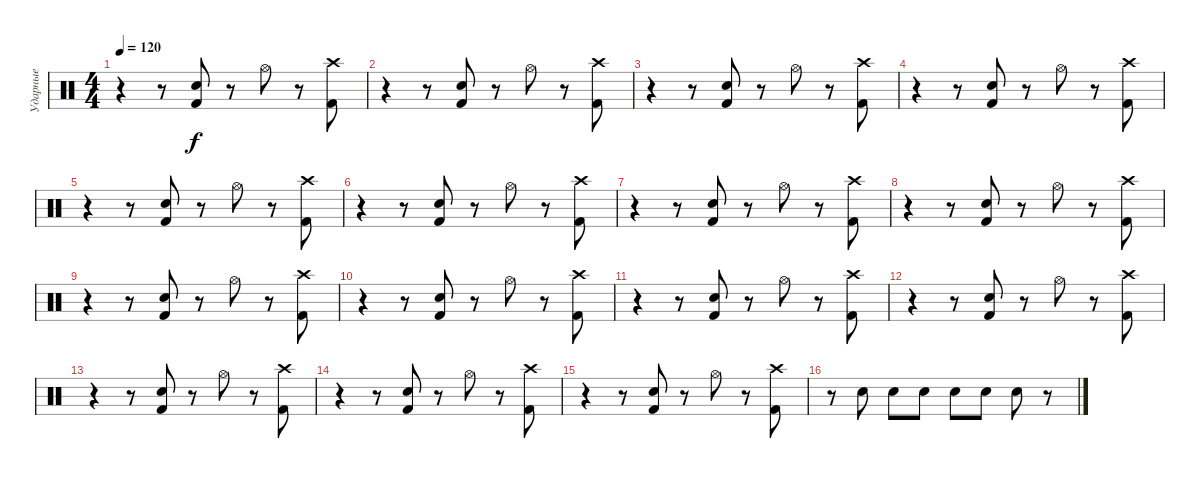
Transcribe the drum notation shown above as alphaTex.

\track ("Ударные" "Ударные") {instrument percussion}
\staff {score}
\articulation defaults
\ts (4 4)
\tempo 120
\clef neutral
\ks c
r.4{dy f} r.8 ("Electric Snare (hit)" "Kick (hit) 2").8 r.8 "Hi-Hat (open)".8 r.8 ("Crash high (hit)" "Kick (hit) 2").8 |
r.4 r.8 ("Electric Snare (hit)" "Kick (hit) 2").8 r.8 "Hi-Hat (open)".8 r.8 ("Crash high (hit)" "Kick (hit) 2").8 |
r.4 r.8 ("Electric Snare (hit)" "Kick (hit) 2").8 r.8 "Hi-Hat (open)".8 r.8 ("Crash high (hit)" "Kick (hit) 2").8 |
r.4 r.8 ("Electric Snare (hit)" "Kick (hit) 2").8 r.8 "Hi-Hat (open)".8 r.8 ("Crash high (hit)" "Kick (hit) 2").8 |
r.4 r.8 ("Electric Snare (hit)" "Kick (hit) 2").8 r.8 "Hi-Hat (open)".8 r.8 ("Crash high (hit)" "Kick (hit) 2").8 |
r.4 r.8 ("Electric Snare (hit)" "Kick (hit) 2").8 r.8 "Hi-Hat (open)".8 r.8 ("Crash high (hit)" "Kick (hit) 2").8 |
r.4 r.8 ("Electric Snare (hit)" "Kick (hit) 2").8 r.8 "Hi-Hat (open)".8 r.8 ("Crash high (hit)" "Kick (hit) 2").8 |
r.4 r.8 ("Electric Snare (hit)" "Kick (hit) 2").8 r.8 "Hi-Hat (open)".8 r.8 ("Crash high (hit)" "Kick (hit) 2").8 |
r.4 r.8 ("Electric Snare (hit)" "Kick (hit) 2").8 r.8 "Hi-Hat (open)".8 r.8 ("Crash high (hit)" "Kick (hit) 2").8 |
r.4 r.8 ("Electric Snare (hit)" "Kick (hit) 2").8 r.8 "Hi-Hat (open)".8 r.8 ("Crash high (hit)" "Kick (hit) 2").8 |
r.4 r.8 ("Electric Snare (hit)" "Kick (hit) 2").8 r.8 "Hi-Hat (open)".8 r.8 ("Crash high (hit)" "Kick (hit) 2").8 |
r.4 r.8 ("Electric Snare (hit)" "Kick (hit) 2").8 r.8 "Hi-Hat (open)".8 r.8 ("Crash high (hit)" "Kick (hit) 2").8 |
r.4 r.8 ("Electric Snare (hit)" "Kick (hit) 2").8 r.8 "Hi-Hat (open)".8 r.8 ("Crash high (hit)" "Kick (hit) 2").8 |
r.4 r.8 ("Electric Snare (hit)" "Kick (hit) 2").8 r.8 "Hi-Hat (open)".8 r.8 ("Crash high (hit)" "Kick (hit) 2").8 |
r.4 r.8 ("Electric Snare (hit)" "Kick (hit) 2").8 r.8 "Hi-Hat (open)".8 r.8 ("Crash high (hit)" "Kick (hit) 2").8 |
r.8 "Electric Snare (hit)".8 "Electric Snare (hit)".8 "Electric Snare (hit)".8 "Electric Snare (hit)".8 "Electric Snare (hit)".8 "Electric Snare (hit)".8 r.8
